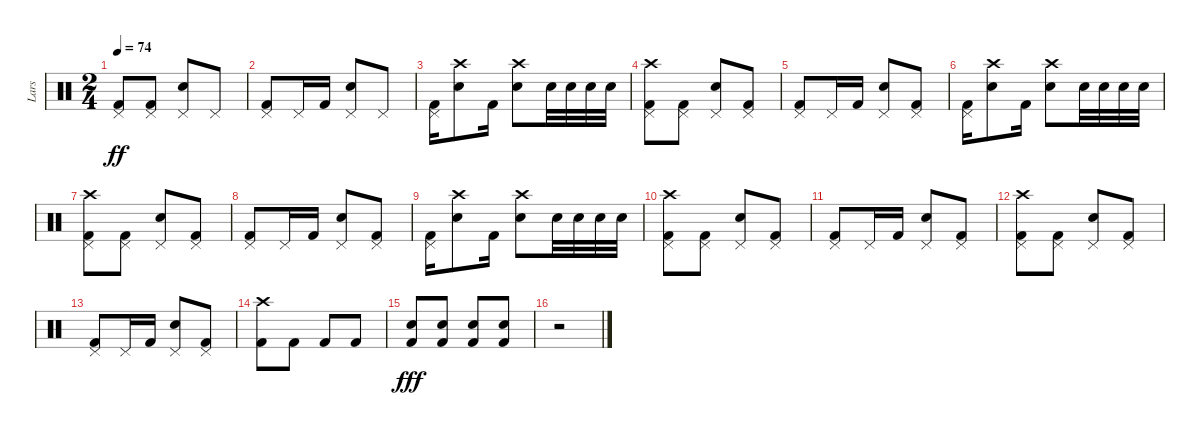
\track ("Lars" "Lars") {instrument percussion}
\staff {score}
\articulation defaults
\ts (2 4)
\tempo 74
\clef neutral
\ks c
("Pedal Hi-Hat (hit)" "Kick (hit) 2").8{dy ff} ("Pedal Hi-Hat (hit)" "Kick (hit) 2").8 ("Pedal Hi-Hat (hit)" "Snare (hit) 2").8 "Pedal Hi-Hat (hit)".8 |
("Pedal Hi-Hat (hit)" "Kick (hit) 2").8 "Pedal Hi-Hat (hit)".16 "Kick (hit) 2".16 ("Pedal Hi-Hat (hit)" "Snare (hit) 2").8 "Pedal Hi-Hat (hit)".8 |
("Pedal Hi-Hat (hit)" "Kick (hit) 2").16 ("Crash high (hit)" "Snare (hit) 2").8 "Kick (hit) 2".16 ("Crash high (hit)" "Snare (hit) 2").8 "Snare (hit) 2".32 "Snare (hit) 2".32 "Snare (hit) 2".32 "Snare (hit) 2".32 |
("Pedal Hi-Hat (hit)" "Crash high (hit)" "Kick (hit) 2").8 ("Pedal Hi-Hat (hit)" "Kick (hit) 2").8 ("Pedal Hi-Hat (hit)" "Snare (hit) 2").8 ("Pedal Hi-Hat (hit)" "Kick (hit) 2").8 |
("Pedal Hi-Hat (hit)" "Kick (hit) 2").8 "Pedal Hi-Hat (hit)".16 "Kick (hit) 2".16 ("Pedal Hi-Hat (hit)" "Snare (hit) 2").8 ("Pedal Hi-Hat (hit)" "Kick (hit) 2").8 |
("Pedal Hi-Hat (hit)" "Kick (hit) 2").16 ("Crash high (hit)" "Snare (hit) 2").8 "Kick (hit) 2".16 ("Crash high (hit)" "Snare (hit) 2").8 "Snare (hit) 2".32 "Snare (hit) 2".32 "Snare (hit) 2".32 "Snare (hit) 2".32 |
("Pedal Hi-Hat (hit)" "Crash high (hit)" "Kick (hit) 2").8 ("Pedal Hi-Hat (hit)" "Kick (hit) 2").8 ("Pedal Hi-Hat (hit)" "Snare (hit) 2").8 ("Pedal Hi-Hat (hit)" "Kick (hit) 2").8 |
("Pedal Hi-Hat (hit)" "Kick (hit) 2").8 "Pedal Hi-Hat (hit)".16 "Kick (hit) 2".16 ("Pedal Hi-Hat (hit)" "Snare (hit) 2").8 ("Pedal Hi-Hat (hit)" "Kick (hit) 2").8 |
("Pedal Hi-Hat (hit)" "Kick (hit) 2").16 ("Crash high (hit)" "Snare (hit) 2").8 "Kick (hit) 2".16 ("Crash high (hit)" "Snare (hit) 2").8 "Snare (hit) 2".32 "Snare (hit) 2".32 "Snare (hit) 2".32 "Snare (hit) 2".32 |
("Pedal Hi-Hat (hit)" "Crash high (hit)" "Kick (hit) 2").8 ("Pedal Hi-Hat (hit)" "Kick (hit) 2").8 ("Pedal Hi-Hat (hit)" "Snare (hit) 2").8 ("Pedal Hi-Hat (hit)" "Kick (hit) 2").8 |
("Pedal Hi-Hat (hit)" "Kick (hit) 2").8 "Pedal Hi-Hat (hit)".16 "Kick (hit) 2".16 ("Pedal Hi-Hat (hit)" "Snare (hit) 2").8 ("Pedal Hi-Hat (hit)" "Kick (hit) 2").8 |
("Pedal Hi-Hat (hit)" "Crash high (hit)" "Kick (hit) 2").8 ("Pedal Hi-Hat (hit)" "Kick (hit) 2").8 ("Pedal Hi-Hat (hit)" "Snare (hit) 2").8 ("Pedal Hi-Hat (hit)" "Kick (hit) 2").8 |
("Pedal Hi-Hat (hit)" "Kick (hit) 2").8 "Pedal Hi-Hat (hit)".16 "Kick (hit) 2".16 ("Pedal Hi-Hat (hit)" "Snare (hit) 2").8 ("Pedal Hi-Hat (hit)" "Kick (hit) 2").8 |
("Crash high (hit)" "Kick (hit) 2").8 "Kick (hit) 2".8 "Kick (hit) 2".8 "Kick (hit) 2".8 |
("Snare (hit) 2" "Kick (hit) 2").8{dy fff} ("Snare (hit) 2" "Kick (hit) 2").8 ("Snare (hit) 2" "Kick (hit) 2").8 ("Snare (hit) 2" "Kick (hit) 2").8 |
r.2
